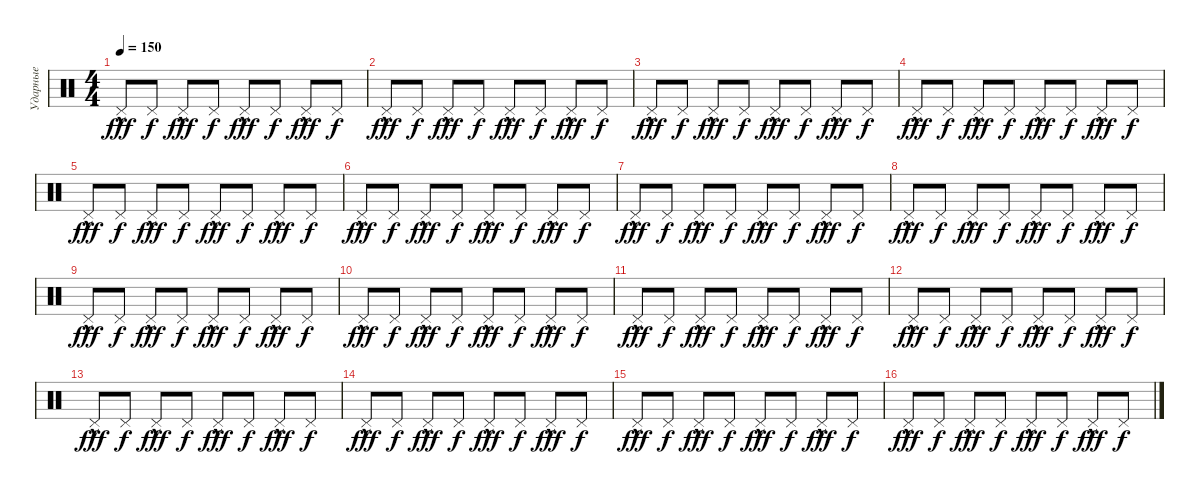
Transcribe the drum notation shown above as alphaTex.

\track ("Ударные" "Ударные") {instrument percussion}
\staff {score}
\articulation defaults
\ts (4 4)
\tempo 150
\clef neutral
\ks c "Pedal Hi-Hat (hit)"{hac}.8{dy fff} "Pedal Hi-Hat (hit)".8{dy f} "Pedal Hi-Hat (hit)"{hac}.8{dy fff} "Pedal Hi-Hat (hit)".8{dy f} "Pedal Hi-Hat (hit)"{hac}.8{dy fff} "Pedal Hi-Hat (hit)".8{dy f} "Pedal Hi-Hat (hit)"{hac}.8{dy fff} "Pedal Hi-Hat (hit)".8{dy f}
|
"Pedal Hi-Hat (hit)"{hac}.8{dy fff} "Pedal Hi-Hat (hit)".8{dy f} "Pedal Hi-Hat (hit)"{hac}.8{dy fff} "Pedal Hi-Hat (hit)".8{dy f} "Pedal Hi-Hat (hit)"{hac}.8{dy fff} "Pedal Hi-Hat (hit)".8{dy f} "Pedal Hi-Hat (hit)"{hac}.8{dy fff} "Pedal Hi-Hat (hit)".8{dy f} |
"Pedal Hi-Hat (hit)"{hac}.8{dy fff} "Pedal Hi-Hat (hit)".8{dy f} "Pedal Hi-Hat (hit)"{hac}.8{dy fff} "Pedal Hi-Hat (hit)".8{dy f} "Pedal Hi-Hat (hit)"{hac}.8{dy fff} "Pedal Hi-Hat (hit)".8{dy f} "Pedal Hi-Hat (hit)"{hac}.8{dy fff} "Pedal Hi-Hat (hit)".8{dy f} |
"Pedal Hi-Hat (hit)"{hac}.8{dy fff} "Pedal Hi-Hat (hit)".8{dy f} "Pedal Hi-Hat (hit)"{hac}.8{dy fff} "Pedal Hi-Hat (hit)".8{dy f} "Pedal Hi-Hat (hit)"{hac}.8{dy fff} "Pedal Hi-Hat (hit)".8{dy f} "Pedal Hi-Hat (hit)"{hac}.8{dy fff} "Pedal Hi-Hat (hit)".8{dy f} |
"Pedal Hi-Hat (hit)"{hac}.8{dy fff} "Pedal Hi-Hat (hit)".8{dy f} "Pedal Hi-Hat (hit)"{hac}.8{dy fff} "Pedal Hi-Hat (hit)".8{dy f} "Pedal Hi-Hat (hit)"{hac}.8{dy fff} "Pedal Hi-Hat (hit)".8{dy f} "Pedal Hi-Hat (hit)"{hac}.8{dy fff} "Pedal Hi-Hat (hit)".8{dy f} |
"Pedal Hi-Hat (hit)"{hac}.8{dy fff} "Pedal Hi-Hat (hit)".8{dy f} "Pedal Hi-Hat (hit)"{hac}.8{dy fff} "Pedal Hi-Hat (hit)".8{dy f} "Pedal Hi-Hat (hit)"{hac}.8{dy fff} "Pedal Hi-Hat (hit)".8{dy f} "Pedal Hi-Hat (hit)"{hac}.8{dy fff} "Pedal Hi-Hat (hit)".8{dy f} |
"Pedal Hi-Hat (hit)"{hac}.8{dy fff} "Pedal Hi-Hat (hit)".8{dy f} "Pedal Hi-Hat (hit)"{hac}.8{dy fff} "Pedal Hi-Hat (hit)".8{dy f} "Pedal Hi-Hat (hit)"{hac}.8{dy fff} "Pedal Hi-Hat (hit)".8{dy f} "Pedal Hi-Hat (hit)"{hac}.8{dy fff} "Pedal Hi-Hat (hit)".8{dy f} |
"Pedal Hi-Hat (hit)"{hac}.8{dy fff} "Pedal Hi-Hat (hit)".8{dy f} "Pedal Hi-Hat (hit)"{hac}.8{dy fff} "Pedal Hi-Hat (hit)".8{dy f} "Pedal Hi-Hat (hit)"{hac}.8{dy fff} "Pedal Hi-Hat (hit)".8{dy f} "Pedal Hi-Hat (hit)"{hac}.8{dy fff} "Pedal Hi-Hat (hit)".8{dy f} |
"Pedal Hi-Hat (hit)"{hac}.8{dy fff} "Pedal Hi-Hat (hit)".8{dy f} "Pedal Hi-Hat (hit)"{hac}.8{dy fff} "Pedal Hi-Hat (hit)".8{dy f} "Pedal Hi-Hat (hit)"{hac}.8{dy fff} "Pedal Hi-Hat (hit)".8{dy f} "Pedal Hi-Hat (hit)"{hac}.8{dy fff} "Pedal Hi-Hat (hit)".8{dy f} |
"Pedal Hi-Hat (hit)"{hac}.8{dy fff} "Pedal Hi-Hat (hit)".8{dy f} "Pedal Hi-Hat (hit)"{hac}.8{dy fff} "Pedal Hi-Hat (hit)".8{dy f} "Pedal Hi-Hat (hit)"{hac}.8{dy fff} "Pedal Hi-Hat (hit)".8{dy f} "Pedal Hi-Hat (hit)"{hac}.8{dy fff} "Pedal Hi-Hat (hit)".8{dy f} |
"Pedal Hi-Hat (hit)"{hac}.8{dy fff} "Pedal Hi-Hat (hit)".8{dy f} "Pedal Hi-Hat (hit)"{hac}.8{dy fff} "Pedal Hi-Hat (hit)".8{dy f} "Pedal Hi-Hat (hit)"{hac}.8{dy fff} "Pedal Hi-Hat (hit)".8{dy f} "Pedal Hi-Hat (hit)"{hac}.8{dy fff} "Pedal Hi-Hat (hit)".8{dy f} |
"Pedal Hi-Hat (hit)"{hac}.8{dy fff} "Pedal Hi-Hat (hit)".8{dy f} "Pedal Hi-Hat (hit)"{hac}.8{dy fff} "Pedal Hi-Hat (hit)".8{dy f} "Pedal Hi-Hat (hit)"{hac}.8{dy fff} "Pedal Hi-Hat (hit)".8{dy f} "Pedal Hi-Hat (hit)"{hac}.8{dy fff} "Pedal Hi-Hat (hit)".8{dy f} |
"Pedal Hi-Hat (hit)"{hac}.8{dy fff} "Pedal Hi-Hat (hit)".8{dy f} "Pedal Hi-Hat (hit)"{hac}.8{dy fff} "Pedal Hi-Hat (hit)".8{dy f} "Pedal Hi-Hat (hit)"{hac}.8{dy fff} "Pedal Hi-Hat (hit)".8{dy f} "Pedal Hi-Hat (hit)"{hac}.8{dy fff} "Pedal Hi-Hat (hit)".8{dy f} |
"Pedal Hi-Hat (hit)"{hac}.8{dy fff} "Pedal Hi-Hat (hit)".8{dy f} "Pedal Hi-Hat (hit)"{hac}.8{dy fff} "Pedal Hi-Hat (hit)".8{dy f} "Pedal Hi-Hat (hit)"{hac}.8{dy fff} "Pedal Hi-Hat (hit)".8{dy f} "Pedal Hi-Hat (hit)"{hac}.8{dy fff} "Pedal Hi-Hat (hit)".8{dy f} |
"Pedal Hi-Hat (hit)"{hac}.8{dy fff} "Pedal Hi-Hat (hit)".8{dy f} "Pedal Hi-Hat (hit)"{hac}.8{dy fff} "Pedal Hi-Hat (hit)".8{dy f} "Pedal Hi-Hat (hit)"{hac}.8{dy fff} "Pedal Hi-Hat (hit)".8{dy f} "Pedal Hi-Hat (hit)"{hac}.8{dy fff} "Pedal Hi-Hat (hit)".8{dy f} |
"Pedal Hi-Hat (hit)"{hac}.8{dy fff} "Pedal Hi-Hat (hit)".8{dy f} "Pedal Hi-Hat (hit)"{hac}.8{dy fff} "Pedal Hi-Hat (hit)".8{dy f} "Pedal Hi-Hat (hit)"{hac}.8{dy fff} "Pedal Hi-Hat (hit)".8{dy f} "Pedal Hi-Hat (hit)"{hac}.8{dy fff} "Pedal Hi-Hat (hit)".8{dy f}
